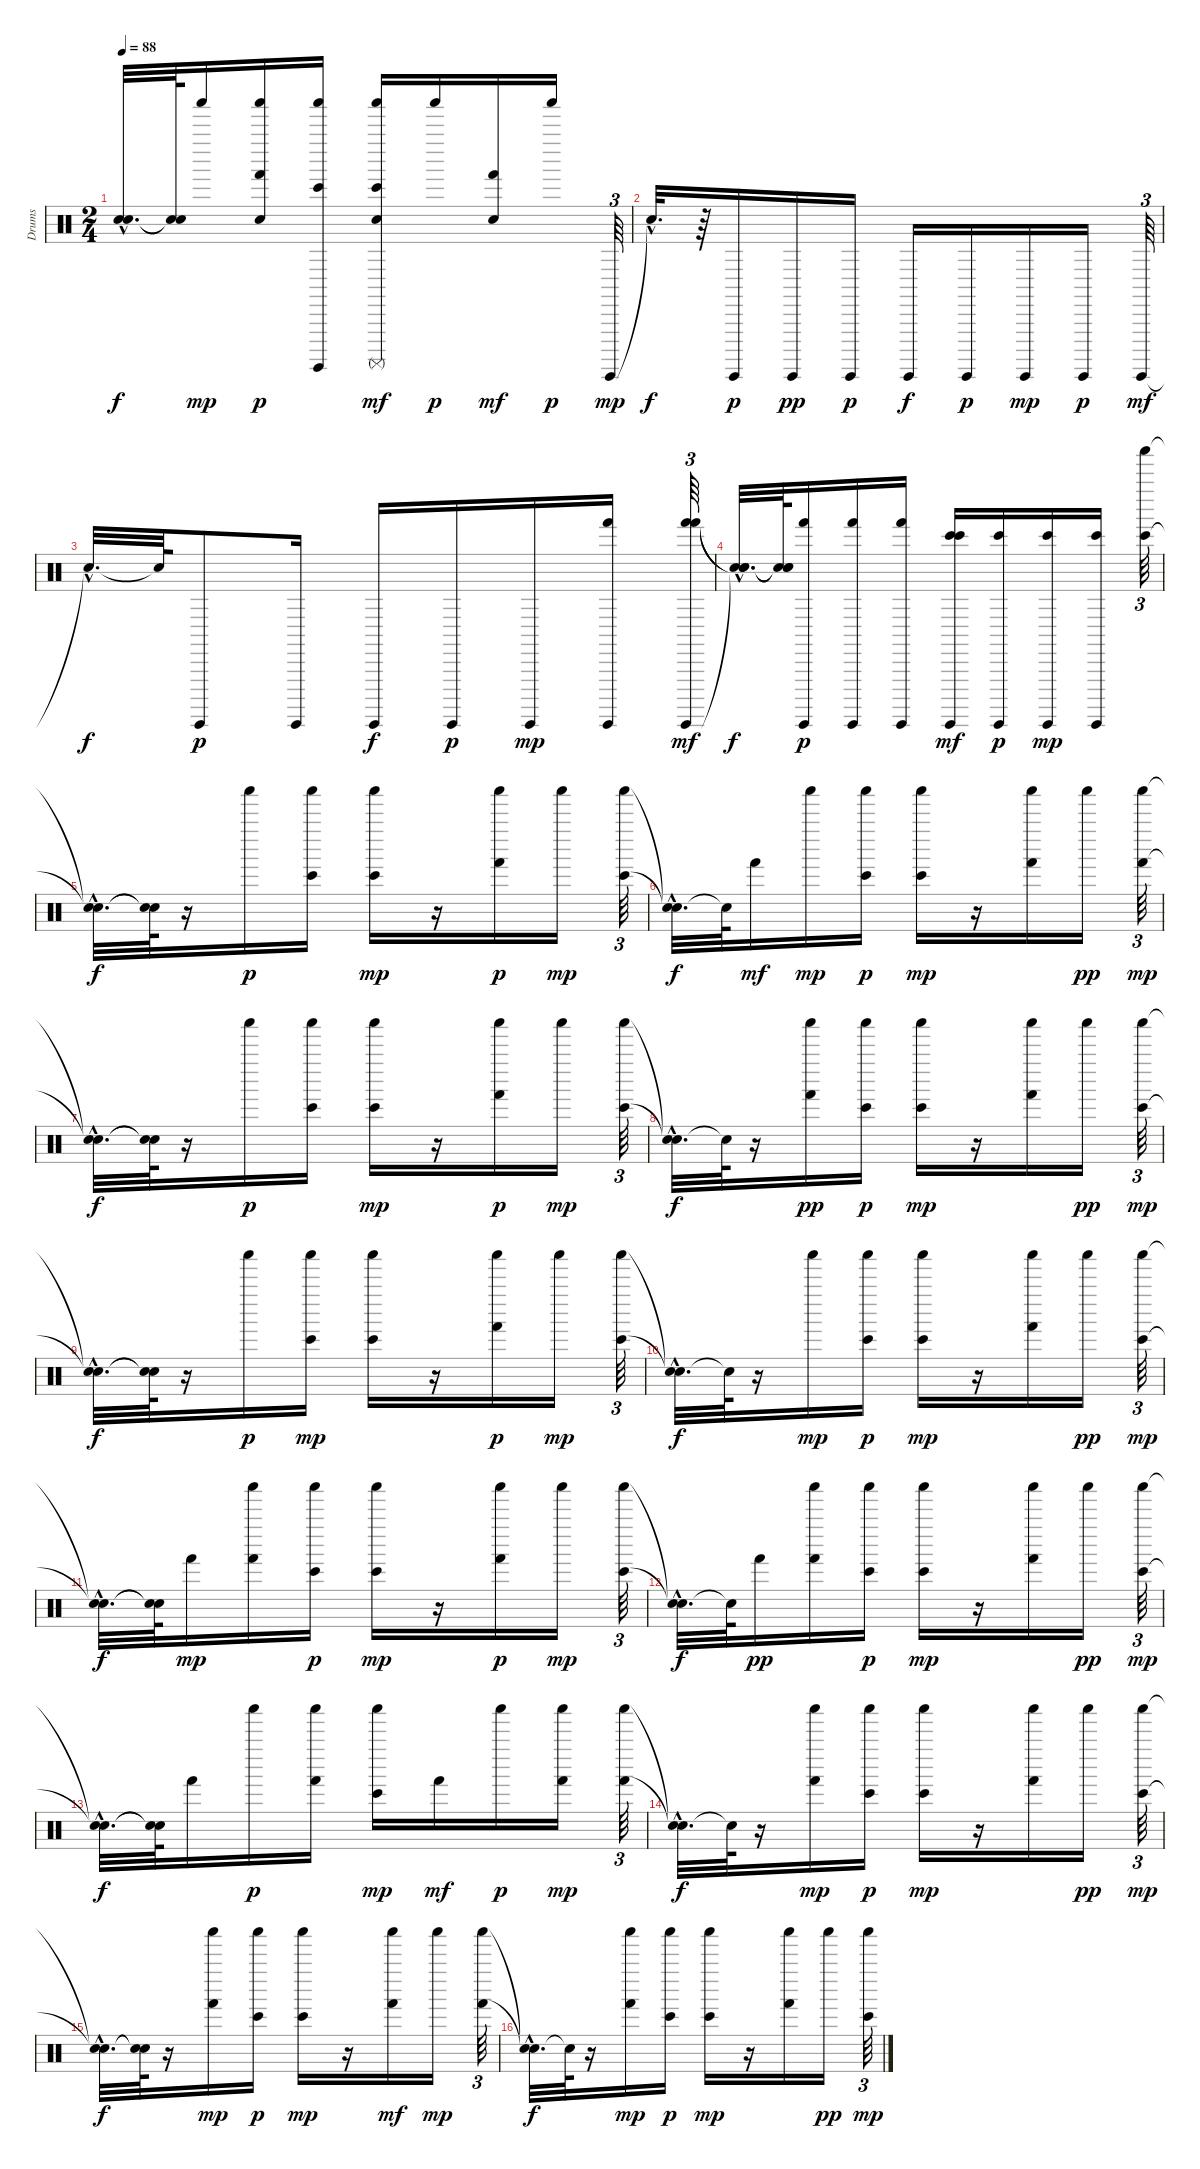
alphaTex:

\track ("Drums" "Drums") {instrument percussion}
\staff {score}
\articulation defaults
\ts (2 4)
\tempo 88
\clef neutral
\ks c
("Snare (hit)"{hac t} "Snare (hit)"{hac t}).32{d dy f} ("Snare (hit)"{t} "Snare (hit)"{t}).64 "Shaker (hit)".16{dy mp} ("Hand Clap (hit)" "Hand (hit)" "Shaker (hit)").16{dy p} ("Shaker (hit)" "Bongo High (hit)" "Surdo (hit)").16 ("Hand Clap (hit)" "Shaker (hit)" "Bongo High (hit)" "Surdo (mute)").16{dy mf} "Shaker (hit)".16{dy p} ("Hand Clap (hit)" "Hand (hit)").16{dy mf} "Shaker (hit)".16{dy p} "Guiro (hit)".64{tu (3 2) dy mp} |
"Snare (hit)"{hac t}.32{d dy f} r.64 "Guiro (hit)".16{dy p} "Guiro (hit)".16{dy pp} "Guiro (hit)".16{dy p} "Guiro (hit)".16{dy f} "Guiro (hit)".16{dy p} "Guiro (hit)".16{dy mp} "Guiro (hit)".16{dy p} "Guiro (hit)".64{tu (3 2) dy mf} |
"Snare (hit)"{hac t}.32{d dy f} "Snare (hit)"{t}.64 "Guiro (hit)".8{dy p} "Guiro (hit)".16 "Guiro (hit)".16{dy f} "Guiro (hit)".16{dy p} "Guiro (hit)".16{dy mp} ("Guiro (hit)" "Hand (hit)").16 ("Hand (hit)" "Guiro (hit)" "Hand (hit)").64{tu (3 2) dy mf} |
("Snare (hit)"{hac t} "Snare (hit)"{hac t} "Snare (hit)"{hac t}).32{d dy f} ("Snare (hit)"{t} "Snare (hit)"{t} "Snare (hit)"{t}).64 ("Guiro (hit)" "Hand (hit)").16{dy p} ("Guiro (hit)" "Hand (hit)").16 ("Hand (hit)" "Guiro (hit)").16 ("Bongo High (hit)" "Guiro (hit)" "Bongo High (hit)").16{dy mf} ("Bongo High (hit)" "Guiro (hit)").16{dy p} ("Bongo High (hit)" "Guiro (hit)").16{dy mp} ("Bongo High (hit)" "Guiro (hit)").16 ("Bongo High (hit)" "Shaker (hit)").64{tu (3 2)} |
("Snare (hit)"{hac t} "Snare (hit)"{hac t}).32{d dy f} ("Snare (hit)"{t} "Snare (hit)"{t}).64 r.16 "Shaker (hit)".16{dy p} ("Shaker (hit)" "Bongo High (hit)").16 ("Shaker (hit)" "Bongo High (hit)").16{dy mp} r.16 ("Shaker (hit)" "Hand (hit)").16{dy p} "Shaker (hit)".16{dy mp} ("Shaker (hit)" "Bongo High (hit)").64{tu (3 2)} |
("Snare (hit)"{hac t} "Snare (hit)"{hac t}).32{d dy f} "Snare (hit)"{t}.64 "Hand (hit)".16{dy mf} "Shaker (hit)".16{dy mp} ("Shaker (hit)" "Bongo High (hit)").16{dy p} ("Shaker (hit)" "Bongo High (hit)").16{dy mp} r.16 ("Shaker (hit)" "Hand (hit)").16 "Shaker (hit)".16{dy pp} ("Shaker (hit)" "Hand (hit)").64{tu (3 2) dy mp} |
("Snare (hit)"{hac t} "Snare (hit)"{hac t}).32{d dy f} ("Snare (hit)"{t} "Snare (hit)"{t}).64 r.16 "Shaker (hit)".16{dy p} ("Shaker (hit)" "Bongo High (hit)").16 ("Shaker (hit)" "Bongo High (hit)").16{dy mp} r.16 ("Hand (hit)" "Shaker (hit)").16{dy p} "Shaker (hit)".16{dy mp} ("Shaker (hit)" "Bongo High (hit)").64{tu (3 2)} |
("Snare (hit)"{hac t} "Snare (hit)"{hac t}).32{d dy f} "Snare (hit)"{t}.64 r.16 ("Shaker (hit)" "Hand (hit)").16{dy pp} ("Bongo High (hit)" "Shaker (hit)").16{dy p} ("Shaker (hit)" "Bongo High (hit)").16{dy mp} r.16 ("Shaker (hit)" "Hand (hit)").16 "Shaker (hit)".16{dy pp} ("Shaker (hit)" "Bongo High (hit)").64{tu (3 2) dy mp} |
("Snare (hit)"{hac t} "Snare (hit)"{hac t}).32{d dy f} ("Snare (hit)"{t} "Snare (hit)"{t}).64 r.16 "Shaker (hit)".16{dy p} ("Shaker (hit)" "Bongo High (hit)").16{dy mp} ("Shaker (hit)" "Bongo High (hit)").16 r.16 ("Shaker (hit)" "Hand (hit)").16{dy p} "Shaker (hit)".16{dy mp} ("Shaker (hit)" "Bongo High (hit)").64{tu (3 2)} |
("Snare (hit)"{hac t} "Snare (hit)"{hac t}).32{d dy f} "Snare (hit)"{t}.64 r.16 "Shaker (hit)".16{dy mp} ("Bongo High (hit)" "Shaker (hit)").16{dy p} ("Shaker (hit)" "Bongo High (hit)").16{dy mp} r.16 ("Shaker (hit)" "Hand (hit)").16 "Shaker (hit)".16{dy pp} ("Shaker (hit)" "Bongo High (hit)").64{tu (3 2) dy mp} |
("Snare (hit)"{hac t} "Snare (hit)"{hac t}).32{d dy f} ("Snare (hit)"{t} "Snare (hit)"{t}).64 "Hand (hit)".16{dy mp} ("Shaker (hit)" "Hand (hit)").16 ("Bongo High (hit)" "Shaker (hit)").16{dy p} ("Bongo High (hit)" "Shaker (hit)").16{dy mp} r.16 ("Shaker (hit)" "Hand (hit)").16{dy p} "Shaker (hit)".16{dy mp} ("Shaker (hit)" "Bongo High (hit)").64{tu (3 2)} |
("Snare (hit)"{hac t} "Snare (hit)"{hac t}).32{d dy f} "Snare (hit)"{t}.64 "Hand (hit)".16{dy pp} ("Shaker (hit)" "Hand (hit)").16 ("Shaker (hit)" "Bongo High (hit)").16{dy p} ("Shaker (hit)" "Bongo High (hit)").16{dy mp} r.16 ("Shaker (hit)" "Hand (hit)").16 "Shaker (hit)".16{dy pp} ("Shaker (hit)" "Bongo High (hit)").64{tu (3 2) dy mp} |
("Snare (hit)"{hac t} "Snare (hit)"{hac t}).32{d dy f} ("Snare (hit)"{t} "Snare (hit)"{t}).64 "Hand (hit)".16 "Shaker (hit)".16{dy p} ("Hand (hit)" "Shaker (hit)").16 ("Bongo High (hit)" "Shaker (hit)").16{dy mp} "Hand (hit)".16{dy mf} "Shaker (hit)".16{dy p} ("Hand (hit)" "Shaker (hit)").16{dy mp} ("Hand (hit)" "Shaker (hit)").64{tu (3 2)} |
("Snare (hit)"{hac t} "Snare (hit)"{hac t}).32{d dy f} "Snare (hit)"{t}.64 r.16 ("Hand (hit)" "Shaker (hit)").16{dy mp} ("Bongo High (hit)" "Shaker (hit)").16{dy p} ("Shaker (hit)" "Bongo High (hit)").16{dy mp} r.16 ("Shaker (hit)" "Hand (hit)").16 "Shaker (hit)".16{dy pp} ("Shaker (hit)" "Bongo High (hit)").64{tu (3 2) dy mp} |
("Snare (hit)"{hac t} "Snare (hit)"{hac t}).32{d dy f} ("Snare (hit)"{t} "Snare (hit)"{t}).64 r.16 ("Shaker (hit)" "Hand (hit)").16{dy mp} ("Bongo High (hit)" "Shaker (hit)").16{dy p} ("Shaker (hit)" "Bongo High (hit)").16{dy mp} r.16 ("Shaker (hit)" "Hand (hit)").16{dy mf} "Shaker (hit)".16{dy mp} ("Shaker (hit)" "Hand (hit)").64{tu (3 2)} |
("Snare (hit)"{hac t} "Snare (hit)"{hac t}).32{d dy f} "Snare (hit)"{t}.64 r.16 ("Hand (hit)" "Shaker (hit)").16{dy mp} ("Bongo High (hit)" "Shaker (hit)").16{dy p} ("Bongo High (hit)" "Shaker (hit)").16{dy mp} r.16 ("Shaker (hit)" "Hand (hit)").16 "Shaker (hit)".16{dy pp} ("Bongo High (hit)" "Shaker (hit)").64{tu (3 2) dy mp}
